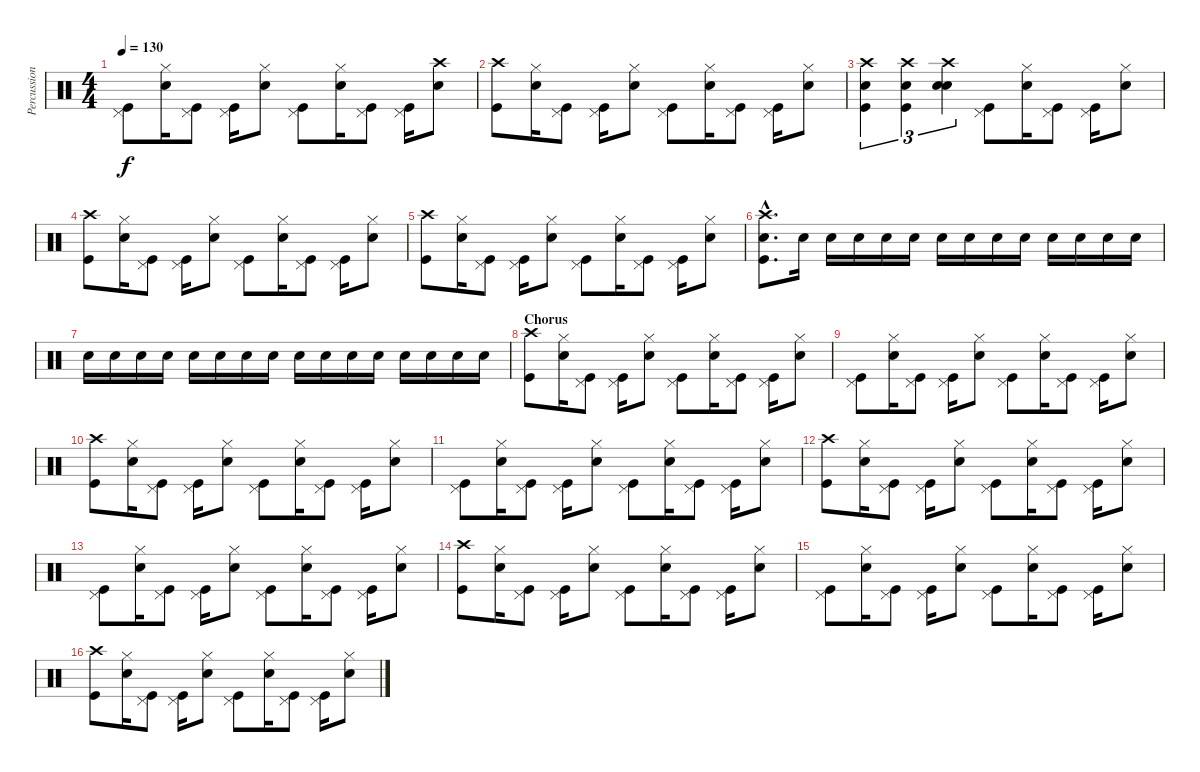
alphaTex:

\track ("Percussion" "Percussion") {instrument percussion}
\staff {score}
\articulation defaults
\ts (4 4)
\tempo 130
\clef neutral
\ks c
("Pedal Hi-Hat (hit)" "Kick (hit)").8{dy f} ("Hi-Hat (closed)" "Snare (hit) 2").16 ("Pedal Hi-Hat (hit)" "Kick (hit)").8 ("Pedal Hi-Hat (hit)" "Kick (hit)").16 ("Hi-Hat (closed)" "Snare (hit) 2").8 ("Pedal Hi-Hat (hit)" "Kick (hit)").8 ("Hi-Hat (closed)" "Snare (hit) 2").16 ("Pedal Hi-Hat (hit)" "Kick (hit)").8 ("Pedal Hi-Hat (hit)" "Kick (hit)").16 ("Crash high (hit)" "Snare (hit) 2").8 |
("Crash high (hit)" "Kick (hit)").8 ("Hi-Hat (closed)" "Snare (hit) 2").16 ("Pedal Hi-Hat (hit)" "Kick (hit)").8 ("Pedal Hi-Hat (hit)" "Kick (hit)").16 ("Hi-Hat (closed)" "Snare (hit) 2").8 ("Pedal Hi-Hat (hit)" "Kick (hit)").8 ("Hi-Hat (closed)" "Snare (hit) 2").16 ("Pedal Hi-Hat (hit)" "Kick (hit)").8 ("Pedal Hi-Hat (hit)" "Kick (hit)").16 ("Hi-Hat (closed)" "Snare (hit) 2").8 |
("Crash high (hit)" "Snare (hit) 2" "Kick (hit)").4{tu (3 2)} ("Crash high (hit)" "Snare (hit) 2" "Kick (hit)").4{tu (3 2)} ("Crash high (hit)" "Snare (hit) 2" "Snare (hit) 2").4{tu (3 2)} ("Pedal Hi-Hat (hit)" "Kick (hit)").8 ("Hi-Hat (closed)" "Snare (hit) 2").16 ("Pedal Hi-Hat (hit)" "Kick (hit)").8 ("Pedal Hi-Hat (hit)" "Kick (hit)").16 ("Hi-Hat (closed)" "Snare (hit) 2").8 |
("Crash high (hit)" "Kick (hit)").8 ("Hi-Hat (closed)" "Snare (hit) 2").16 ("Pedal Hi-Hat (hit)" "Kick (hit)").8 ("Pedal Hi-Hat (hit)" "Kick (hit)").16 ("Hi-Hat (closed)" "Snare (hit) 2").8 ("Pedal Hi-Hat (hit)" "Kick (hit)").8 ("Hi-Hat (closed)" "Snare (hit) 2").16 ("Pedal Hi-Hat (hit)" "Kick (hit)").8 ("Pedal Hi-Hat (hit)" "Kick (hit)").16 ("Hi-Hat (closed)" "Snare (hit) 2").8 |
("Crash high (hit)" "Kick (hit)").8 ("Hi-Hat (closed)" "Snare (hit) 2").16 ("Pedal Hi-Hat (hit)" "Kick (hit)").8 ("Pedal Hi-Hat (hit)" "Kick (hit)").16 ("Hi-Hat (closed)" "Snare (hit) 2").8 ("Pedal Hi-Hat (hit)" "Kick (hit)").8 ("Hi-Hat (closed)" "Snare (hit) 2").16 ("Pedal Hi-Hat (hit)" "Kick (hit)").8 ("Pedal Hi-Hat (hit)" "Kick (hit)").16 ("Hi-Hat (closed)" "Snare (hit) 2").8 |
("Crash high (hit)"{hac} "Snare (hit) 2"{hac} "Kick (hit)"{hac}).8{d} "Snare (hit) 2".16{volume 0} "Snare (hit) 2".16{volume 12} "Snare (hit) 2".16 "Snare (hit) 2".16 "Snare (hit) 2".16 "Snare (hit) 2".16 "Snare (hit) 2".16 "Snare (hit) 2".16 "Snare (hit) 2".16 "Snare (hit) 2".16 "Snare (hit) 2".16 "Snare (hit) 2".16 "Snare (hit) 2".16 |
"Snare (hit) 2".16 "Snare (hit) 2".16 "Snare (hit) 2".16 "Snare (hit) 2".16 "Snare (hit) 2".16 "Snare (hit) 2".16 "Snare (hit) 2".16 "Snare (hit) 2".16 "Snare (hit) 2".16 "Snare (hit) 2".16 "Snare (hit) 2".16 "Snare (hit) 2".16 "Snare (hit) 2".16 "Snare (hit) 2".16 "Snare (hit) 2".16 "Snare (hit) 2".16 |
\section ("" "Chorus")
("Crash high (hit)" "Kick (hit)").8 ("Hi-Hat (closed)" "Snare (hit) 2").16 ("Pedal Hi-Hat (hit)" "Kick (hit)").8 ("Pedal Hi-Hat (hit)" "Kick (hit)").16 ("Hi-Hat (closed)" "Snare (hit) 2").8 ("Pedal Hi-Hat (hit)" "Kick (hit)").8 ("Hi-Hat (closed)" "Snare (hit) 2").16 ("Pedal Hi-Hat (hit)" "Kick (hit)").8 ("Pedal Hi-Hat (hit)" "Kick (hit)").16 ("Hi-Hat (closed)" "Snare (hit) 2").8 |
("Pedal Hi-Hat (hit)" "Kick (hit)").8 ("Hi-Hat (closed)" "Snare (hit) 2").16 ("Pedal Hi-Hat (hit)" "Kick (hit)").8 ("Pedal Hi-Hat (hit)" "Kick (hit)").16 ("Hi-Hat (closed)" "Snare (hit) 2").8 ("Pedal Hi-Hat (hit)" "Kick (hit)").8 ("Hi-Hat (closed)" "Snare (hit) 2").16 ("Pedal Hi-Hat (hit)" "Kick (hit)").8 ("Pedal Hi-Hat (hit)" "Kick (hit)").16 ("Hi-Hat (closed)" "Snare (hit) 2").8 |
("Crash high (hit)" "Kick (hit)").8 ("Hi-Hat (closed)" "Snare (hit) 2").16 ("Pedal Hi-Hat (hit)" "Kick (hit)").8 ("Pedal Hi-Hat (hit)" "Kick (hit)").16 ("Hi-Hat (closed)" "Snare (hit) 2").8 ("Pedal Hi-Hat (hit)" "Kick (hit)").8 ("Hi-Hat (closed)" "Snare (hit) 2").16 ("Pedal Hi-Hat (hit)" "Kick (hit)").8 ("Pedal Hi-Hat (hit)" "Kick (hit)").16 ("Hi-Hat (closed)" "Snare (hit) 2").8 |
("Pedal Hi-Hat (hit)" "Kick (hit)").8 ("Hi-Hat (closed)" "Snare (hit) 2").16 ("Pedal Hi-Hat (hit)" "Kick (hit)").8 ("Pedal Hi-Hat (hit)" "Kick (hit)").16 ("Hi-Hat (closed)" "Snare (hit) 2").8 ("Pedal Hi-Hat (hit)" "Kick (hit)").8 ("Hi-Hat (closed)" "Snare (hit) 2").16 ("Pedal Hi-Hat (hit)" "Kick (hit)").8 ("Pedal Hi-Hat (hit)" "Kick (hit)").16 ("Hi-Hat (closed)" "Snare (hit) 2").8 |
("Crash high (hit)" "Kick (hit)").8 ("Hi-Hat (closed)" "Snare (hit) 2").16 ("Pedal Hi-Hat (hit)" "Kick (hit)").8 ("Pedal Hi-Hat (hit)" "Kick (hit)").16 ("Hi-Hat (closed)" "Snare (hit) 2").8 ("Pedal Hi-Hat (hit)" "Kick (hit)").8 ("Hi-Hat (closed)" "Snare (hit) 2").16 ("Pedal Hi-Hat (hit)" "Kick (hit)").8 ("Pedal Hi-Hat (hit)" "Kick (hit)").16 ("Hi-Hat (closed)" "Snare (hit) 2").8 |
("Pedal Hi-Hat (hit)" "Kick (hit)").8 ("Hi-Hat (closed)" "Snare (hit) 2").16 ("Pedal Hi-Hat (hit)" "Kick (hit)").8 ("Pedal Hi-Hat (hit)" "Kick (hit)").16 ("Hi-Hat (closed)" "Snare (hit) 2").8 ("Pedal Hi-Hat (hit)" "Kick (hit)").8 ("Hi-Hat (closed)" "Snare (hit) 2").16 ("Pedal Hi-Hat (hit)" "Kick (hit)").8 ("Pedal Hi-Hat (hit)" "Kick (hit)").16 ("Hi-Hat (closed)" "Snare (hit) 2").8 |
("Crash high (hit)" "Kick (hit)").8 ("Hi-Hat (closed)" "Snare (hit) 2").16 ("Pedal Hi-Hat (hit)" "Kick (hit)").8 ("Pedal Hi-Hat (hit)" "Kick (hit)").16 ("Hi-Hat (closed)" "Snare (hit) 2").8 ("Pedal Hi-Hat (hit)" "Kick (hit)").8 ("Hi-Hat (closed)" "Snare (hit) 2").16 ("Pedal Hi-Hat (hit)" "Kick (hit)").8 ("Pedal Hi-Hat (hit)" "Kick (hit)").16 ("Hi-Hat (closed)" "Snare (hit) 2").8 |
("Pedal Hi-Hat (hit)" "Kick (hit)").8 ("Hi-Hat (closed)" "Snare (hit) 2").16 ("Pedal Hi-Hat (hit)" "Kick (hit)").8 ("Pedal Hi-Hat (hit)" "Kick (hit)").16 ("Hi-Hat (closed)" "Snare (hit) 2").8 ("Pedal Hi-Hat (hit)" "Kick (hit)").8 ("Hi-Hat (closed)" "Snare (hit) 2").16 ("Pedal Hi-Hat (hit)" "Kick (hit)").8 ("Pedal Hi-Hat (hit)" "Kick (hit)").16 ("Hi-Hat (closed)" "Snare (hit) 2").8 |
("Crash high (hit)" "Kick (hit)").8 ("Hi-Hat (closed)" "Snare (hit) 2").16 ("Pedal Hi-Hat (hit)" "Kick (hit)").8 ("Pedal Hi-Hat (hit)" "Kick (hit)").16 ("Hi-Hat (closed)" "Snare (hit) 2").8 ("Pedal Hi-Hat (hit)" "Kick (hit)").8 ("Hi-Hat (closed)" "Snare (hit) 2").16 ("Pedal Hi-Hat (hit)" "Kick (hit)").8 ("Pedal Hi-Hat (hit)" "Kick (hit)").16 ("Hi-Hat (closed)" "Snare (hit) 2").8
